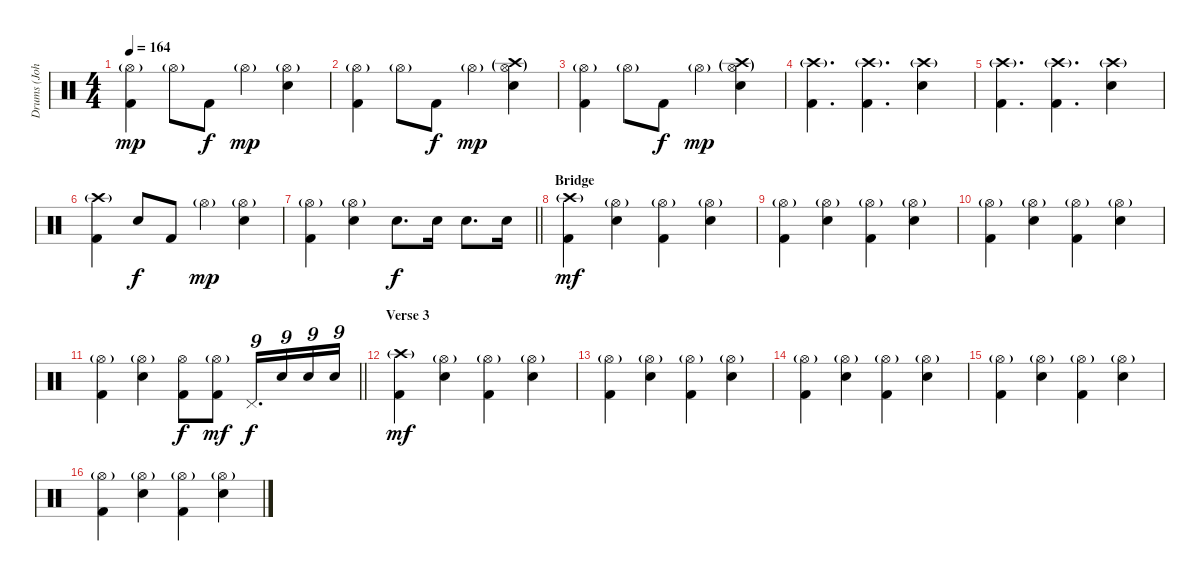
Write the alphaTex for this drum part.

\track ("Drums (John O'Reilly)" "Drums (Joh") {instrument percussion}
\staff {score}
\articulation defaults
\ts (4 4)
\tempo 164
\clef neutral
\ks c
("Hi-Hat (open)"{g} "Kick (hit) 2").4{dy mp} "Hi-Hat (open)"{g}.8 "Kick (hit) 2".8{dy f} "Hi-Hat (open)"{g}.4{dy mp} ("Hi-Hat (open)"{g} "Electric Snare (hit)").4 |
("Hi-Hat (open)"{g} "Kick (hit) 2").4 "Hi-Hat (open)"{g}.8 "Kick (hit) 2".8{dy f} "Hi-Hat (open)"{g}.4{dy mp} ("Crash high (hit)"{g} "Hi-Hat (open)"{g} "Electric Snare (hit)").4 |
("Hi-Hat (open)"{g} "Kick (hit) 2").4 "Hi-Hat (open)"{g}.8 "Kick (hit) 2".8{dy f} "Hi-Hat (open)"{g}.4{dy mp} ("Crash high (hit)"{g} "Hi-Hat (open)"{g} "Electric Snare (hit)").4 |
("Crash high (hit)"{g} "Kick (hit) 2").4{d} ("Crash high (hit)"{g} "Kick (hit) 2").4{d} ("Crash high (hit)"{g} "Electric Snare (hit)").4 |
("Crash high (hit)"{g} "Kick (hit) 2").4{d} ("Crash high (hit)"{g} "Kick (hit) 2").4{d} ("Crash high (hit)"{g} "Electric Snare (hit)").4 |
("Crash high (hit)"{g} "Kick (hit) 2").4 "Electric Snare (hit)".8{dy f} "Kick (hit) 2".8 "Hi-Hat (open)"{g}.4{dy mp} ("Hi-Hat (open)"{g} "Electric Snare (hit)").4 |
\barLineRight lightlight
("Hi-Hat (open)"{g} "Kick (hit) 2").4 ("Hi-Hat (open)"{g} "Electric Snare (hit)").4 "Electric Snare (hit)".8{d dy f} "Electric Snare (hit)".16 "Electric Snare (hit)".8{d} "Electric Snare (hit)".16 |
\section ("" "Bridge")
("Crash high (hit)"{g} "Kick (hit) 2").4{dy mf} ("Hi-Hat (open)"{g} "Electric Snare (hit)").4 ("Hi-Hat (open)"{g} "Kick (hit) 2").4 ("Hi-Hat (open)"{g} "Electric Snare (hit)").4 |
("Hi-Hat (open)"{g} "Kick (hit) 2").4 ("Hi-Hat (open)"{g} "Electric Snare (hit)").4 ("Hi-Hat (open)"{g} "Kick (hit) 2").4 ("Hi-Hat (open)"{g} "Electric Snare (hit)").4 |
("Hi-Hat (open)"{g} "Kick (hit) 2").4 ("Hi-Hat (open)"{g} "Electric Snare (hit)").4 ("Hi-Hat (open)"{g} "Kick (hit) 2").4 ("Hi-Hat (open)"{g} "Electric Snare (hit)").4 |
\barLineRight lightlight
("Hi-Hat (open)"{g} "Kick (hit) 2").4 ("Hi-Hat (open)"{g} "Electric Snare (hit)").4 ("Hi-Hat (open)" "Kick (hit) 2").8{dy f} ("Hi-Hat (open)"{g} "Kick (hit) 2").8{dy mf} "Pedal Hi-Hat (hit)".16{d tu (9 8) dy f} "Electric Snare (hit)".16{tu (9 8)} "Electric Snare (hit)".16{tu (9 8)} "Electric Snare (hit)".16{tu (9 8)} |
\section ("" "Verse 3")
("Crash high (hit)"{g} "Kick (hit) 2").4{dy mf} ("Hi-Hat (open)"{g} "Electric Snare (hit)").4 ("Hi-Hat (open)"{g} "Kick (hit) 2").4 ("Hi-Hat (open)"{g} "Electric Snare (hit)").4 |
("Hi-Hat (open)"{g} "Kick (hit) 2").4 ("Hi-Hat (open)"{g} "Electric Snare (hit)").4 ("Hi-Hat (open)"{g} "Kick (hit) 2").4 ("Hi-Hat (open)"{g} "Electric Snare (hit)").4 |
("Hi-Hat (open)"{g} "Kick (hit) 2").4 ("Hi-Hat (open)"{g} "Electric Snare (hit)").4 ("Hi-Hat (open)"{g} "Kick (hit) 2").4 ("Hi-Hat (open)"{g} "Electric Snare (hit)").4 |
("Hi-Hat (open)"{g} "Kick (hit) 2").4 ("Hi-Hat (open)"{g} "Electric Snare (hit)").4 ("Hi-Hat (open)"{g} "Kick (hit) 2").4 ("Hi-Hat (open)"{g} "Electric Snare (hit)").4 |
("Hi-Hat (open)"{g} "Kick (hit) 2").4 ("Hi-Hat (open)"{g} "Electric Snare (hit)").4 ("Hi-Hat (open)"{g} "Kick (hit) 2").4 ("Hi-Hat (open)"{g} "Electric Snare (hit)").4
